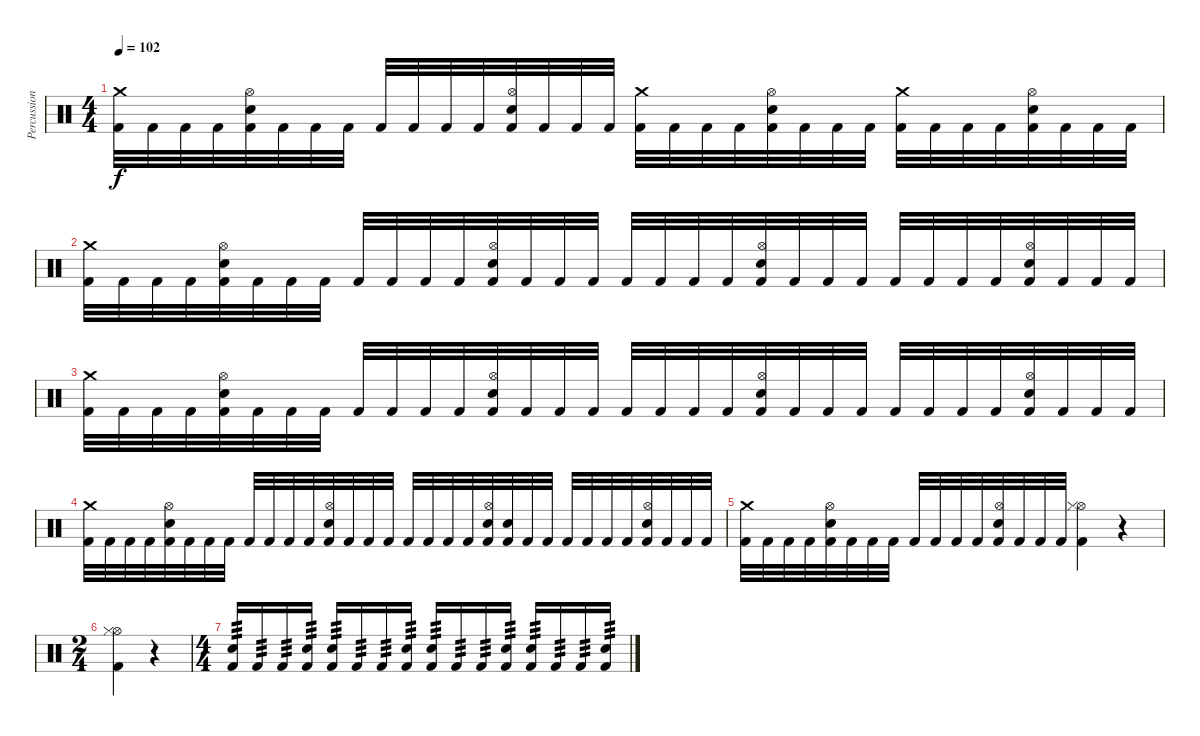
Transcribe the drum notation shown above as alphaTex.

\track ("Percussion" "Percussion") {instrument percussion}
\staff {score}
\articulation defaults
\ts (4 4)
\tempo 102
\clef neutral
\ks c
("Crash medium (hit)" "Kick (hit) 2").32{dy f} "Kick (hit) 2".32 "Kick (hit) 2".32 "Kick (hit) 2".32 ("Hi-Hat (open)" "Electric Snare (hit)" "Kick (hit) 2").32 "Kick (hit) 2".32 "Kick (hit) 2".32 "Kick (hit) 2".32 "Kick (hit) 2".32 "Kick (hit) 2".32 "Kick (hit) 2".32 "Kick (hit) 2".32 ("Hi-Hat (open)" "Electric Snare (hit)" "Kick (hit) 2").32 "Kick (hit) 2".32 "Kick (hit) 2".32 "Kick (hit) 2".32 ("Crash medium (hit)" "Kick (hit) 2").32 "Kick (hit) 2".32 "Kick (hit) 2".32 "Kick (hit) 2".32 ("Hi-Hat (open)" "Electric Snare (hit)" "Kick (hit) 2").32 "Kick (hit) 2".32 "Kick (hit) 2".32 "Kick (hit) 2".32 ("Crash medium (hit)" "Kick (hit) 2").32 "Kick (hit) 2".32 "Kick (hit) 2".32 "Kick (hit) 2".32 ("Hi-Hat (open)" "Electric Snare (hit)" "Kick (hit) 2").32 "Kick (hit) 2".32 "Kick (hit) 2".32 "Kick (hit) 2".32 |
("Crash medium (hit)" "Kick (hit) 2").32 "Kick (hit) 2".32 "Kick (hit) 2".32 "Kick (hit) 2".32 ("Hi-Hat (open)" "Electric Snare (hit)" "Kick (hit) 2").32 "Kick (hit) 2".32 "Kick (hit) 2".32 "Kick (hit) 2".32 "Kick (hit) 2".32 "Kick (hit) 2".32 "Kick (hit) 2".32 "Kick (hit) 2".32 ("Hi-Hat (open)" "Electric Snare (hit)" "Kick (hit) 2").32 "Kick (hit) 2".32 "Kick (hit) 2".32 "Kick (hit) 2".32 "Kick (hit) 2".32 "Kick (hit) 2".32 "Kick (hit) 2".32 "Kick (hit) 2".32 ("Hi-Hat (open)" "Electric Snare (hit)" "Kick (hit) 2").32 "Kick (hit) 2".32 "Kick (hit) 2".32 "Kick (hit) 2".32 "Kick (hit) 2".32 "Kick (hit) 2".32 "Kick (hit) 2".32 "Kick (hit) 2".32 ("Hi-Hat (open)" "Electric Snare (hit)" "Kick (hit) 2").32 "Kick (hit) 2".32 "Kick (hit) 2".32 "Kick (hit) 2".32 |
("Crash medium (hit)" "Kick (hit) 2").32 "Kick (hit) 2".32 "Kick (hit) 2".32 "Kick (hit) 2".32 ("Hi-Hat (open)" "Electric Snare (hit)" "Kick (hit) 2").32 "Kick (hit) 2".32 "Kick (hit) 2".32 "Kick (hit) 2".32 "Kick (hit) 2".32 "Kick (hit) 2".32 "Kick (hit) 2".32 "Kick (hit) 2".32 ("Hi-Hat (open)" "Electric Snare (hit)" "Kick (hit) 2").32 "Kick (hit) 2".32 "Kick (hit) 2".32 "Kick (hit) 2".32 "Kick (hit) 2".32 "Kick (hit) 2".32 "Kick (hit) 2".32 "Kick (hit) 2".32 ("Hi-Hat (open)" "Electric Snare (hit)" "Kick (hit) 2").32 "Kick (hit) 2".32 "Kick (hit) 2".32 "Kick (hit) 2".32 "Kick (hit) 2".32 "Kick (hit) 2".32 "Kick (hit) 2".32 "Kick (hit) 2".32 ("Hi-Hat (open)" "Electric Snare (hit)" "Kick (hit) 2").32 "Kick (hit) 2".32 "Kick (hit) 2".32 "Kick (hit) 2".32 |
("Crash medium (hit)" "Kick (hit) 2").32 "Kick (hit) 2".32 "Kick (hit) 2".32 "Kick (hit) 2".32 ("Hi-Hat (open)" "Electric Snare (hit)" "Kick (hit) 2").32 "Kick (hit) 2".32 "Kick (hit) 2".32 "Kick (hit) 2".32 "Kick (hit) 2".32 "Kick (hit) 2".32 "Kick (hit) 2".32 "Kick (hit) 2".32 ("Hi-Hat (open)" "Electric Snare (hit)" "Kick (hit) 2").32 "Kick (hit) 2".32 "Kick (hit) 2".32 "Kick (hit) 2".32 "Kick (hit) 2".32 "Kick (hit) 2".32 "Kick (hit) 2".32 "Kick (hit) 2".32 ("Hi-Hat (open)" "Electric Snare (hit)" "Kick (hit) 2").32 ("Snare (hit)" "Kick (hit) 2").32 "Kick (hit) 2".32 "Kick (hit) 2".32 "Kick (hit) 2".32 "Kick (hit) 2".32 "Kick (hit) 2".32 "Kick (hit) 2".32 ("Hi-Hat (open)" "Electric Snare (hit)" "Kick (hit) 2").32 "Kick (hit) 2".32 "Kick (hit) 2".32 "Kick (hit) 2".32 |
("Crash medium (hit)" "Kick (hit) 2").32 "Kick (hit) 2".32 "Kick (hit) 2".32 "Kick (hit) 2".32 ("Hi-Hat (open)" "Electric Snare (hit)" "Kick (hit) 2").32 "Kick (hit) 2".32 "Kick (hit) 2".32 "Kick (hit) 2".32 "Kick (hit) 2".32 "Kick (hit) 2".32 "Kick (hit) 2".32 "Kick (hit) 2".32 ("Hi-Hat (open)" "Electric Snare (hit)" "Kick (hit) 2").32 "Kick (hit) 2".32 "Kick (hit) 2".32 "Kick (hit) 2".32 ("Hi-Hat (open)" "Hi-Hat (closed)" "Kick (hit) 2").4 r.4 |
\ts (2 4)
("Hi-Hat (open)" "Hi-Hat (closed)" "Kick (hit) 2").4 r.4 |
\ts (4 4)
("Electric Snare (hit)" "Kick (hit) 2").16{tp 3} "Kick (hit) 2".16{tp 3} "Kick (hit) 2".16{tp 3} ("Electric Snare (hit)" "Kick (hit) 2").16{tp 3} ("Snare (hit)" "Kick (hit) 2").16{tp 3} "Kick (hit) 2".16{tp 3} "Kick (hit) 2".16{tp 3} ("Electric Snare (hit)" "Kick (hit) 2").16{tp 3} ("Snare (hit)" "Kick (hit) 2").16{tp 3} "Kick (hit) 2".16{tp 3} "Kick (hit) 2".16{tp 3} ("Electric Snare (hit)" "Kick (hit) 2").16{tp 3} ("Snare (hit)" "Kick (hit) 2").16{tp 3} "Kick (hit) 2".16{tp 3} "Kick (hit) 2".16{tp 3} ("Electric Snare (hit)" "Kick (hit) 2").16{tp 3}
